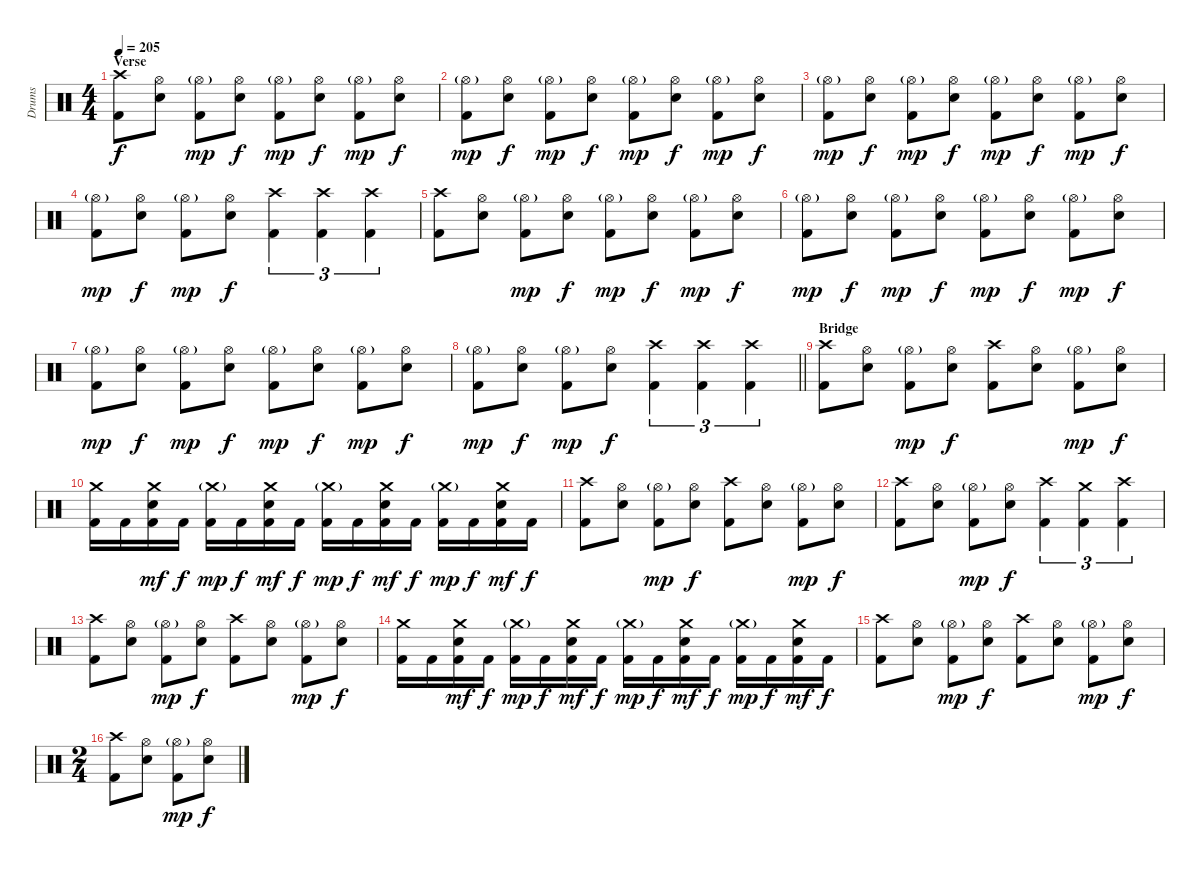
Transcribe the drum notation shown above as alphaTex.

\track ("Drums" "Drums") {instrument percussion}
\staff {score}
\articulation defaults
\ts (4 4)
\section ("" "Verse")
\tempo 205
\clef neutral
\ks c
("Crash high (hit)" "Kick (hit) 2").8{dy f} ("Hi-Hat (open)" "Electric Snare (hit)").8 ("Hi-Hat (open)"{g} "Kick (hit) 2").8{dy mp} ("Hi-Hat (open)" "Electric Snare (hit)").8{dy f} ("Hi-Hat (open)"{g} "Kick (hit) 2").8{dy mp} ("Hi-Hat (open)" "Electric Snare (hit)").8{dy f} ("Hi-Hat (open)"{g} "Kick (hit) 2").8{dy mp} ("Hi-Hat (open)" "Electric Snare (hit)").8{dy f} |
("Hi-Hat (open)"{g} "Kick (hit) 2").8{dy mp} ("Hi-Hat (open)" "Electric Snare (hit)").8{dy f} ("Hi-Hat (open)"{g} "Kick (hit) 2").8{dy mp} ("Hi-Hat (open)" "Electric Snare (hit)").8{dy f} ("Hi-Hat (open)"{g} "Kick (hit) 2").8{dy mp} ("Hi-Hat (open)" "Electric Snare (hit)").8{dy f} ("Hi-Hat (open)"{g} "Kick (hit) 2").8{dy mp} ("Hi-Hat (open)" "Electric Snare (hit)").8{dy f} |
("Hi-Hat (open)"{g} "Kick (hit) 2").8{dy mp} ("Hi-Hat (open)" "Electric Snare (hit)").8{dy f} ("Hi-Hat (open)"{g} "Kick (hit) 2").8{dy mp} ("Hi-Hat (open)" "Electric Snare (hit)").8{dy f} ("Hi-Hat (open)"{g} "Kick (hit) 2").8{dy mp} ("Hi-Hat (open)" "Electric Snare (hit)").8{dy f} ("Hi-Hat (open)"{g} "Kick (hit) 2").8{dy mp} ("Hi-Hat (open)" "Electric Snare (hit)").8{dy f} |
("Hi-Hat (open)"{g} "Kick (hit) 2").8{dy mp} ("Hi-Hat (open)" "Electric Snare (hit)").8{dy f} ("Hi-Hat (open)"{g} "Kick (hit) 2").8{dy mp} ("Hi-Hat (open)" "Electric Snare (hit)").8{dy f} ("Crash high (hit)" "Kick (hit) 2").4{tu (3 2)} ("Crash high (hit)" "Kick (hit) 2").4{tu (3 2)} ("Crash high (hit)" "Kick (hit) 2").4{tu (3 2)} |
("Crash high (hit)" "Kick (hit) 2").8 ("Hi-Hat (open)" "Electric Snare (hit)").8 ("Hi-Hat (open)"{g} "Kick (hit) 2").8{dy mp} ("Hi-Hat (open)" "Electric Snare (hit)").8{dy f} ("Hi-Hat (open)"{g} "Kick (hit) 2").8{dy mp} ("Hi-Hat (open)" "Electric Snare (hit)").8{dy f} ("Hi-Hat (open)"{g} "Kick (hit) 2").8{dy mp} ("Hi-Hat (open)" "Electric Snare (hit)").8{dy f} |
("Hi-Hat (open)"{g} "Kick (hit) 2").8{dy mp} ("Hi-Hat (open)" "Electric Snare (hit)").8{dy f} ("Hi-Hat (open)"{g} "Kick (hit) 2").8{dy mp} ("Hi-Hat (open)" "Electric Snare (hit)").8{dy f} ("Hi-Hat (open)"{g} "Kick (hit) 2").8{dy mp} ("Hi-Hat (open)" "Electric Snare (hit)").8{dy f} ("Hi-Hat (open)"{g} "Kick (hit) 2").8{dy mp} ("Hi-Hat (open)" "Electric Snare (hit)").8{dy f} |
("Hi-Hat (open)"{g} "Kick (hit) 2").8{dy mp} ("Hi-Hat (open)" "Electric Snare (hit)").8{dy f} ("Hi-Hat (open)"{g} "Kick (hit) 2").8{dy mp} ("Hi-Hat (open)" "Electric Snare (hit)").8{dy f} ("Hi-Hat (open)"{g} "Kick (hit) 2").8{dy mp} ("Hi-Hat (open)" "Electric Snare (hit)").8{dy f} ("Hi-Hat (open)"{g} "Kick (hit) 2").8{dy mp} ("Hi-Hat (open)" "Electric Snare (hit)").8{dy f} |
\barLineRight lightlight
("Hi-Hat (open)"{g} "Kick (hit) 2").8{dy mp} ("Hi-Hat (open)" "Electric Snare (hit)").8{dy f} ("Hi-Hat (open)"{g} "Kick (hit) 2").8{dy mp} ("Hi-Hat (open)" "Electric Snare (hit)").8{dy f} ("Crash high (hit)" "Kick (hit) 2").4{tu (3 2)} ("Crash high (hit)" "Kick (hit) 2").4{tu (3 2)} ("Crash high (hit)" "Kick (hit) 2").4{tu (3 2)} |
\section ("" "Bridge")
("Crash high (hit)" "Kick (hit) 2").8 ("Hi-Hat (open)" "Electric Snare (hit)").8 ("Hi-Hat (open)"{g} "Kick (hit) 2").8{dy mp} ("Hi-Hat (open)" "Electric Snare (hit)").8{dy f} ("Crash high (hit)" "Kick (hit) 2").8 ("Hi-Hat (open)" "Electric Snare (hit)").8 ("Hi-Hat (open)"{g} "Kick (hit) 2").8{dy mp} ("Hi-Hat (open)" "Electric Snare (hit)").8{dy f} |
("Crash medium (hit)" "Kick (hit) 2").16 "Kick (hit) 2".16 ("Crash medium (hit)" "Electric Snare (hit)" "Kick (hit) 2").16{dy mf} "Kick (hit) 2".16{dy f} ("Crash medium (hit)"{g} "Kick (hit) 2").16{dy mp} "Kick (hit) 2".16{dy f} ("Crash medium (hit)" "Electric Snare (hit)" "Kick (hit) 2").16{dy mf} "Kick (hit) 2".16{dy f} ("Crash medium (hit)"{g} "Kick (hit) 2").16{dy mp} "Kick (hit) 2".16{dy f} ("Crash medium (hit)" "Electric Snare (hit)" "Kick (hit) 2").16{dy mf} "Kick (hit) 2".16{dy f} ("Crash medium (hit)"{g} "Kick (hit) 2").16{dy mp} "Kick (hit) 2".16{dy f} ("Crash medium (hit)" "Electric Snare (hit)" "Kick (hit) 2").16{dy mf} "Kick (hit) 2".16{dy f} |
("Crash high (hit)" "Kick (hit) 2").8 ("Hi-Hat (open)" "Electric Snare (hit)").8 ("Hi-Hat (open)"{g} "Kick (hit) 2").8{dy mp} ("Hi-Hat (open)" "Electric Snare (hit)").8{dy f} ("Crash high (hit)" "Kick (hit) 2").8 ("Hi-Hat (open)" "Electric Snare (hit)").8 ("Hi-Hat (open)"{g} "Kick (hit) 2").8{dy mp} ("Hi-Hat (open)" "Electric Snare (hit)").8{dy f} |
("Crash high (hit)" "Kick (hit) 2").8 ("Hi-Hat (open)" "Electric Snare (hit)").8 ("Hi-Hat (open)"{g} "Kick (hit) 2").8{dy mp} ("Hi-Hat (open)" "Electric Snare (hit)").8{dy f} ("Crash high (hit)" "Kick (hit) 2").4{tu (3 2)} ("Crash medium (hit)" "Kick (hit) 2").4{tu (3 2)} ("Crash high (hit)" "Kick (hit) 2").4{tu (3 2)} |
("Crash high (hit)" "Kick (hit) 2").8 ("Hi-Hat (open)" "Electric Snare (hit)").8 ("Hi-Hat (open)"{g} "Kick (hit) 2").8{dy mp} ("Hi-Hat (open)" "Electric Snare (hit)").8{dy f} ("Crash high (hit)" "Kick (hit) 2").8 ("Hi-Hat (open)" "Electric Snare (hit)").8 ("Hi-Hat (open)"{g} "Kick (hit) 2").8{dy mp} ("Hi-Hat (open)" "Electric Snare (hit)").8{dy f} |
("Crash medium (hit)" "Kick (hit) 2").16 "Kick (hit) 2".16 ("Crash medium (hit)" "Electric Snare (hit)" "Kick (hit) 2").16{dy mf} "Kick (hit) 2".16{dy f} ("Crash medium (hit)"{g} "Kick (hit) 2").16{dy mp} "Kick (hit) 2".16{dy f} ("Crash medium (hit)" "Electric Snare (hit)" "Kick (hit) 2").16{dy mf} "Kick (hit) 2".16{dy f} ("Crash medium (hit)"{g} "Kick (hit) 2").16{dy mp} "Kick (hit) 2".16{dy f} ("Crash medium (hit)" "Electric Snare (hit)" "Kick (hit) 2").16{dy mf} "Kick (hit) 2".16{dy f} ("Crash medium (hit)"{g} "Kick (hit) 2").16{dy mp} "Kick (hit) 2".16{dy f} ("Crash medium (hit)" "Electric Snare (hit)" "Kick (hit) 2").16{dy mf} "Kick (hit) 2".16{dy f} |
("Crash high (hit)" "Kick (hit) 2").8 ("Hi-Hat (open)" "Electric Snare (hit)").8 ("Hi-Hat (open)"{g} "Kick (hit) 2").8{dy mp} ("Hi-Hat (open)" "Electric Snare (hit)").8{dy f} ("Crash high (hit)" "Kick (hit) 2").8 ("Hi-Hat (open)" "Electric Snare (hit)").8 ("Hi-Hat (open)"{g} "Kick (hit) 2").8{dy mp} ("Hi-Hat (open)" "Electric Snare (hit)").8{dy f} |
\ts (2 4)
("Crash high (hit)" "Kick (hit) 2").8 ("Hi-Hat (open)" "Electric Snare (hit)").8 ("Hi-Hat (open)"{g} "Kick (hit) 2").8{dy mp} ("Hi-Hat (open)" "Electric Snare (hit)").8{dy f}
